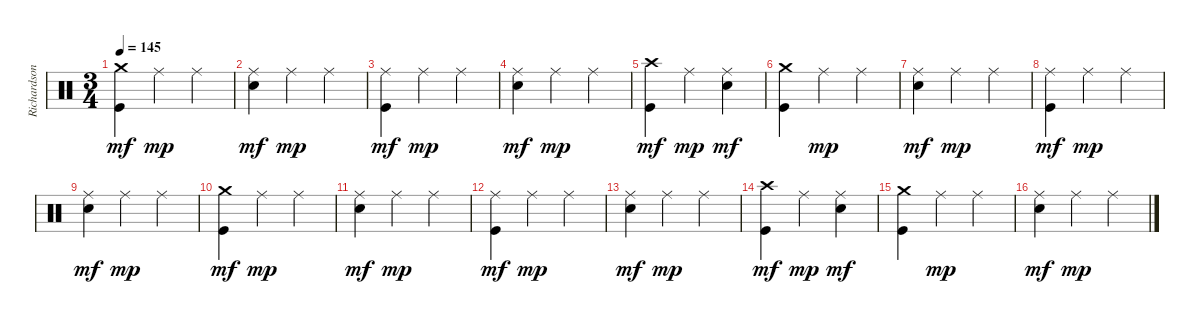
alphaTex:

\track ("Richardson" "Richardson") {instrument percussion}
\staff {score}
\articulation defaults
\ts (3 4)
\tempo 145
\clef neutral
\ks c
("Crash medium (hit)" "Kick (hit)").4{dy mf} "Ride (middle)".4{dy mp} "Ride (middle)".4 |
("Ride (middle)" "Electric Snare (hit)").4{dy mf} "Ride (middle)".4{dy mp} "Ride (middle)".4 |
("Ride (middle)" "Kick (hit)").4{dy mf} "Ride (middle)".4{dy mp} "Ride (middle)".4 |
("Ride (middle)" "Electric Snare (hit)").4{dy mf} "Ride (middle)".4{dy mp} "Ride (middle)".4 |
("Crash high (hit)" "Kick (hit)").4{dy mf} "Ride (middle)".4{dy mp} ("Ride (middle)" "Electric Snare (hit)").4{dy mf} |
("Crash medium (hit)" "Kick (hit)").4 "Ride (middle)".4{dy mp} "Ride (middle)".4 |
("Ride (middle)" "Electric Snare (hit)").4{dy mf} "Ride (middle)".4{dy mp} "Ride (middle)".4 |
("Ride (middle)" "Kick (hit)").4{dy mf} "Ride (middle)".4{dy mp} "Ride (middle)".4 |
("Ride (middle)" "Electric Snare (hit)").4{dy mf} "Ride (middle)".4{dy mp} "Ride (middle)".4 |
("Crash medium (hit)" "Kick (hit)").4{dy mf} "Ride (middle)".4{dy mp} "Ride (middle)".4 |
("Ride (middle)" "Electric Snare (hit)").4{dy mf} "Ride (middle)".4{dy mp} "Ride (middle)".4 |
("Ride (middle)" "Kick (hit)").4{dy mf} "Ride (middle)".4{dy mp} "Ride (middle)".4 |
("Ride (middle)" "Electric Snare (hit)").4{dy mf} "Ride (middle)".4{dy mp} "Ride (middle)".4 |
("Crash high (hit)" "Kick (hit)").4{dy mf} "Ride (middle)".4{dy mp} ("Ride (middle)" "Electric Snare (hit)").4{dy mf} |
("Crash medium (hit)" "Kick (hit)").4 "Ride (middle)".4{dy mp} "Ride (middle)".4 |
("Ride (middle)" "Electric Snare (hit)").4{dy mf} "Ride (middle)".4{dy mp} "Ride (middle)".4
